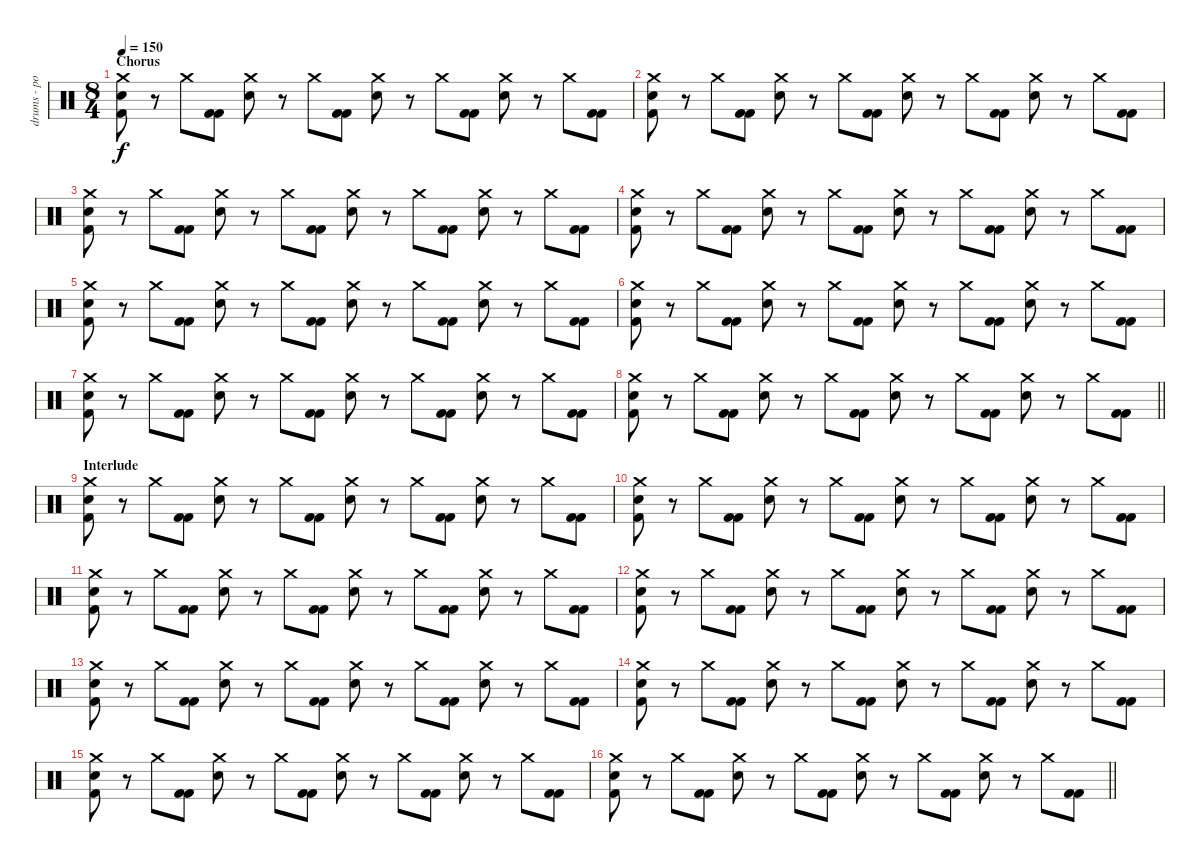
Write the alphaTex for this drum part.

\track ("drums - portnoy" "drums - po") {instrument percussion}
\staff {score}
\articulation defaults
\ts (8 4)
\section ("" "Chorus")
\tempo 150
\clef neutral
\ks c
("Crash medium (hit)" "Electric Snare (hit)" "Kick (hit) 2").8{dy f} r.8 "Crash medium (hit)".8 ("Kick (hit) 2" "Kick (hit) 2").8 ("Crash medium (hit)" "Electric Snare (hit)").8 r.8 "Crash medium (hit)".8 ("Kick (hit) 2" "Kick (hit) 2").8 ("Crash medium (hit)" "Electric Snare (hit)").8 r.8 "Crash medium (hit)".8 ("Kick (hit) 2" "Kick (hit) 2").8 ("Crash medium (hit)" "Electric Snare (hit)").8 r.8 "Crash medium (hit)".8 ("Kick (hit) 2" "Kick (hit) 2").8 |
("Crash medium (hit)" "Electric Snare (hit)" "Kick (hit) 2").8 r.8 "Crash medium (hit)".8 ("Kick (hit) 2" "Kick (hit) 2").8 ("Crash medium (hit)" "Electric Snare (hit)").8 r.8 "Crash medium (hit)".8 ("Kick (hit) 2" "Kick (hit) 2").8 ("Crash medium (hit)" "Electric Snare (hit)").8 r.8 "Crash medium (hit)".8 ("Kick (hit) 2" "Kick (hit) 2").8 ("Crash medium (hit)" "Electric Snare (hit)").8 r.8 "Crash medium (hit)".8 ("Kick (hit) 2" "Kick (hit) 2").8 |
("Crash medium (hit)" "Electric Snare (hit)" "Kick (hit) 2").8 r.8 "Crash medium (hit)".8 ("Kick (hit) 2" "Kick (hit) 2").8 ("Crash medium (hit)" "Electric Snare (hit)").8 r.8 "Crash medium (hit)".8 ("Kick (hit) 2" "Kick (hit) 2").8 ("Crash medium (hit)" "Electric Snare (hit)").8 r.8 "Crash medium (hit)".8 ("Kick (hit) 2" "Kick (hit) 2").8 ("Crash medium (hit)" "Electric Snare (hit)").8 r.8 "Crash medium (hit)".8 ("Kick (hit) 2" "Kick (hit) 2").8 |
("Crash medium (hit)" "Electric Snare (hit)" "Kick (hit) 2").8 r.8 "Crash medium (hit)".8 ("Kick (hit) 2" "Kick (hit) 2").8 ("Crash medium (hit)" "Electric Snare (hit)").8 r.8 "Crash medium (hit)".8 ("Kick (hit) 2" "Kick (hit) 2").8 ("Crash medium (hit)" "Electric Snare (hit)").8 r.8 "Crash medium (hit)".8 ("Kick (hit) 2" "Kick (hit) 2").8 ("Crash medium (hit)" "Electric Snare (hit)").8 r.8 "Crash medium (hit)".8 ("Kick (hit) 2" "Kick (hit) 2").8 |
("Crash medium (hit)" "Electric Snare (hit)" "Kick (hit) 2").8 r.8 "Crash medium (hit)".8 ("Kick (hit) 2" "Kick (hit) 2").8 ("Crash medium (hit)" "Electric Snare (hit)").8 r.8 "Crash medium (hit)".8 ("Kick (hit) 2" "Kick (hit) 2").8 ("Crash medium (hit)" "Electric Snare (hit)").8 r.8 "Crash medium (hit)".8 ("Kick (hit) 2" "Kick (hit) 2").8 ("Crash medium (hit)" "Electric Snare (hit)").8 r.8 "Crash medium (hit)".8 ("Kick (hit) 2" "Kick (hit) 2").8 |
("Crash medium (hit)" "Electric Snare (hit)" "Kick (hit) 2").8 r.8 "Crash medium (hit)".8 ("Kick (hit) 2" "Kick (hit) 2").8 ("Crash medium (hit)" "Electric Snare (hit)").8 r.8 "Crash medium (hit)".8 ("Kick (hit) 2" "Kick (hit) 2").8 ("Crash medium (hit)" "Electric Snare (hit)").8 r.8 "Crash medium (hit)".8 ("Kick (hit) 2" "Kick (hit) 2").8 ("Crash medium (hit)" "Electric Snare (hit)").8 r.8 "Crash medium (hit)".8 ("Kick (hit) 2" "Kick (hit) 2").8 |
("Crash medium (hit)" "Electric Snare (hit)" "Kick (hit) 2").8 r.8 "Crash medium (hit)".8 ("Kick (hit) 2" "Kick (hit) 2").8 ("Crash medium (hit)" "Electric Snare (hit)").8 r.8 "Crash medium (hit)".8 ("Kick (hit) 2" "Kick (hit) 2").8 ("Crash medium (hit)" "Electric Snare (hit)").8 r.8 "Crash medium (hit)".8 ("Kick (hit) 2" "Kick (hit) 2").8 ("Crash medium (hit)" "Electric Snare (hit)").8 r.8 "Crash medium (hit)".8 ("Kick (hit) 2" "Kick (hit) 2").8 |
\barLineRight lightlight
("Crash medium (hit)" "Electric Snare (hit)" "Kick (hit) 2").8 r.8 "Crash medium (hit)".8 ("Kick (hit) 2" "Kick (hit) 2").8 ("Crash medium (hit)" "Electric Snare (hit)").8 r.8 "Crash medium (hit)".8 ("Kick (hit) 2" "Kick (hit) 2").8 ("Crash medium (hit)" "Electric Snare (hit)").8 r.8 "Crash medium (hit)".8 ("Kick (hit) 2" "Kick (hit) 2").8 ("Crash medium (hit)" "Electric Snare (hit)").8 r.8 "Crash medium (hit)".8 ("Kick (hit) 2" "Kick (hit) 2").8 |
\section ("" "Interlude")
("Crash medium (hit)" "Electric Snare (hit)" "Kick (hit) 2").8 r.8 "Crash medium (hit)".8 ("Kick (hit) 2" "Kick (hit) 2").8 ("Crash medium (hit)" "Electric Snare (hit)").8 r.8 "Crash medium (hit)".8 ("Kick (hit) 2" "Kick (hit) 2").8 ("Crash medium (hit)" "Electric Snare (hit)").8 r.8 "Crash medium (hit)".8 ("Kick (hit) 2" "Kick (hit) 2").8 ("Crash medium (hit)" "Electric Snare (hit)").8 r.8 "Crash medium (hit)".8 ("Kick (hit) 2" "Kick (hit) 2").8 |
("Crash medium (hit)" "Electric Snare (hit)" "Kick (hit) 2").8 r.8 "Crash medium (hit)".8 ("Kick (hit) 2" "Kick (hit) 2").8 ("Crash medium (hit)" "Electric Snare (hit)").8 r.8 "Crash medium (hit)".8 ("Kick (hit) 2" "Kick (hit) 2").8 ("Crash medium (hit)" "Electric Snare (hit)").8 r.8 "Crash medium (hit)".8 ("Kick (hit) 2" "Kick (hit) 2").8 ("Crash medium (hit)" "Electric Snare (hit)").8 r.8 "Crash medium (hit)".8 ("Kick (hit) 2" "Kick (hit) 2").8 |
("Crash medium (hit)" "Electric Snare (hit)" "Kick (hit) 2").8 r.8 "Crash medium (hit)".8 ("Kick (hit) 2" "Kick (hit) 2").8 ("Crash medium (hit)" "Electric Snare (hit)").8 r.8 "Crash medium (hit)".8 ("Kick (hit) 2" "Kick (hit) 2").8 ("Crash medium (hit)" "Electric Snare (hit)").8 r.8 "Crash medium (hit)".8 ("Kick (hit) 2" "Kick (hit) 2").8 ("Crash medium (hit)" "Electric Snare (hit)").8 r.8 "Crash medium (hit)".8 ("Kick (hit) 2" "Kick (hit) 2").8 |
("Crash medium (hit)" "Electric Snare (hit)" "Kick (hit) 2").8 r.8 "Crash medium (hit)".8 ("Kick (hit) 2" "Kick (hit) 2").8 ("Crash medium (hit)" "Electric Snare (hit)").8 r.8 "Crash medium (hit)".8 ("Kick (hit) 2" "Kick (hit) 2").8 ("Crash medium (hit)" "Electric Snare (hit)").8 r.8 "Crash medium (hit)".8 ("Kick (hit) 2" "Kick (hit) 2").8 ("Crash medium (hit)" "Electric Snare (hit)").8 r.8 "Crash medium (hit)".8 ("Kick (hit) 2" "Kick (hit) 2").8 |
("Crash medium (hit)" "Electric Snare (hit)" "Kick (hit) 2").8 r.8 "Crash medium (hit)".8 ("Kick (hit) 2" "Kick (hit) 2").8 ("Crash medium (hit)" "Electric Snare (hit)").8 r.8 "Crash medium (hit)".8 ("Kick (hit) 2" "Kick (hit) 2").8 ("Crash medium (hit)" "Electric Snare (hit)").8 r.8 "Crash medium (hit)".8 ("Kick (hit) 2" "Kick (hit) 2").8 ("Crash medium (hit)" "Electric Snare (hit)").8 r.8 "Crash medium (hit)".8 ("Kick (hit) 2" "Kick (hit) 2").8 |
("Crash medium (hit)" "Electric Snare (hit)" "Kick (hit) 2").8 r.8 "Crash medium (hit)".8 ("Kick (hit) 2" "Kick (hit) 2").8 ("Crash medium (hit)" "Electric Snare (hit)").8 r.8 "Crash medium (hit)".8 ("Kick (hit) 2" "Kick (hit) 2").8 ("Crash medium (hit)" "Electric Snare (hit)").8 r.8 "Crash medium (hit)".8 ("Kick (hit) 2" "Kick (hit) 2").8 ("Crash medium (hit)" "Electric Snare (hit)").8 r.8 "Crash medium (hit)".8 ("Kick (hit) 2" "Kick (hit) 2").8 |
("Crash medium (hit)" "Electric Snare (hit)" "Kick (hit) 2").8 r.8 "Crash medium (hit)".8 ("Kick (hit) 2" "Kick (hit) 2").8 ("Crash medium (hit)" "Electric Snare (hit)").8 r.8 "Crash medium (hit)".8 ("Kick (hit) 2" "Kick (hit) 2").8 ("Crash medium (hit)" "Electric Snare (hit)").8 r.8 "Crash medium (hit)".8 ("Kick (hit) 2" "Kick (hit) 2").8 ("Crash medium (hit)" "Electric Snare (hit)").8 r.8 "Crash medium (hit)".8 ("Kick (hit) 2" "Kick (hit) 2").8 |
\barLineRight lightlight
("Crash medium (hit)" "Electric Snare (hit)" "Kick (hit) 2").8 r.8 "Crash medium (hit)".8 ("Kick (hit) 2" "Kick (hit) 2").8 ("Crash medium (hit)" "Electric Snare (hit)").8 r.8 "Crash medium (hit)".8 ("Kick (hit) 2" "Kick (hit) 2").8 ("Crash medium (hit)" "Electric Snare (hit)").8 r.8 "Crash medium (hit)".8 ("Kick (hit) 2" "Kick (hit) 2").8 ("Crash medium (hit)" "Electric Snare (hit)").8 r.8 "Crash medium (hit)".8 ("Kick (hit) 2" "Kick (hit) 2").8
